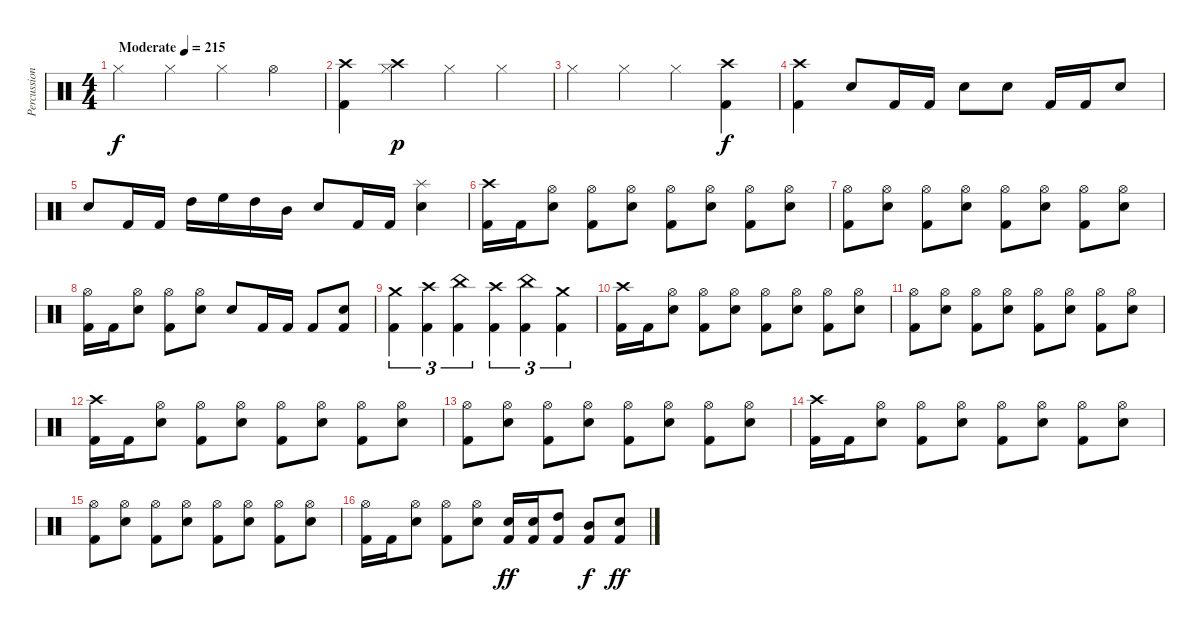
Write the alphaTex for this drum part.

\track ("Percussions" "Percussion") {instrument percussion}
\staff {score}
\articulation defaults
\ts (4 4)
\tempo (215 "Moderate")
\clef neutral
\ks c "Hi-Hat (closed)".4{dy f} "Hi-Hat (closed)".4 "Hi-Hat (closed)".4 "Hi-Hat (open)".4
|
("Crash high (hit)" "Kick (hit) 2").4 ("Crash high (hit)" "Hi-Hat (closed)").4{dy p} "Hi-Hat (closed)".4 "Hi-Hat (closed)".4 |
"Hi-Hat (closed)".4 "Hi-Hat (closed)".4 "Hi-Hat (closed)".4 ("Crash high (hit)" "Kick (hit) 2").4{dy f} |
("Crash high (hit)" "Kick (hit) 2").4 "Electric Snare (hit)".8 "Kick (hit) 2".16 "Kick (hit) 2".16 "Electric Snare (hit)".8 "Electric Snare (hit)".8 "Kick (hit) 2".16 "Kick (hit) 2".16 "Electric Snare (hit)".8 |
"Electric Snare (hit)".8 "Kick (hit) 2".16 "Kick (hit) 2".16 "High Tom (hit)".16 "High Floor Tom (hit)".16 "High Tom (hit)".16 "Mid Tom (hit)".16 "Electric Snare (hit)".8 "Kick (hit) 2".16 "Kick (hit) 2".16 ("Splash (hit)" "Electric Snare (hit)").4 |
("Crash high (hit)" "Kick (hit) 2").16 "Kick (hit) 2".16 ("Hi-Hat (open)" "Electric Snare (hit)").8 ("Hi-Hat (open)" "Kick (hit) 2").8 ("Hi-Hat (open)" "Electric Snare (hit)").8 ("Hi-Hat (open)" "Kick (hit) 2").8 ("Hi-Hat (open)" "Electric Snare (hit)").8 ("Hi-Hat (open)" "Kick (hit) 2").8 ("Hi-Hat (open)" "Electric Snare (hit)").8 |
("Hi-Hat (open)" "Kick (hit) 2").8 ("Hi-Hat (open)" "Electric Snare (hit)").8 ("Hi-Hat (open)" "Kick (hit) 2").8 ("Hi-Hat (open)" "Electric Snare (hit)").8 ("Hi-Hat (open)" "Kick (hit) 2").8 ("Hi-Hat (open)" "Electric Snare (hit)").8 ("Hi-Hat (open)" "Kick (hit) 2").8 ("Hi-Hat (open)" "Electric Snare (hit)").8 |
("Hi-Hat (open)" "Kick (hit) 2").16 "Kick (hit) 2".16 ("Hi-Hat (open)" "Electric Snare (hit)").8 ("Hi-Hat (open)" "Kick (hit) 2").8 ("Hi-Hat (open)" "Electric Snare (hit)").8 "Electric Snare (hit)".8 "Kick (hit) 2".16 "Kick (hit) 2".16 "Kick (hit) 2".8 ("Electric Snare (hit)" "Kick (hit) 2").8 |
("Crash medium (hit)" "Kick (hit) 2").4{tu (3 2)} ("Crash high (hit)" "Kick (hit) 2").4{tu (3 2)} ("China (hit)" "Kick (hit) 2").4{tu (3 2)} ("Crash high (hit)" "Kick (hit) 2").4{tu (3 2)} ("China (hit)" "Kick (hit) 2").4{tu (3 2)} ("Crash medium (hit)" "Kick (hit) 2").4{tu (3 2)} |
("Crash high (hit)" "Kick (hit) 2").16 "Kick (hit) 2".16 ("Hi-Hat (open)" "Electric Snare (hit)").8 ("Hi-Hat (open)" "Kick (hit) 2").8 ("Hi-Hat (open)" "Electric Snare (hit)").8 ("Hi-Hat (open)" "Kick (hit) 2").8 ("Hi-Hat (open)" "Electric Snare (hit)").8 ("Hi-Hat (open)" "Kick (hit) 2").8 ("Hi-Hat (open)" "Electric Snare (hit)").8 |
("Hi-Hat (open)" "Kick (hit) 2").8 ("Hi-Hat (open)" "Electric Snare (hit)").8 ("Hi-Hat (open)" "Kick (hit) 2").8 ("Hi-Hat (open)" "Electric Snare (hit)").8 ("Hi-Hat (open)" "Kick (hit) 2").8 ("Hi-Hat (open)" "Electric Snare (hit)").8 ("Hi-Hat (open)" "Kick (hit) 2").8 ("Hi-Hat (open)" "Electric Snare (hit)").8 |
("Crash high (hit)" "Kick (hit) 2").16 "Kick (hit) 2".16 ("Hi-Hat (open)" "Electric Snare (hit)").8 ("Hi-Hat (open)" "Kick (hit) 2").8 ("Hi-Hat (open)" "Electric Snare (hit)").8 ("Hi-Hat (open)" "Kick (hit) 2").8 ("Hi-Hat (open)" "Electric Snare (hit)").8 ("Hi-Hat (open)" "Kick (hit) 2").8 ("Hi-Hat (open)" "Electric Snare (hit)").8 |
("Hi-Hat (open)" "Kick (hit) 2").8 ("Hi-Hat (open)" "Electric Snare (hit)").8 ("Hi-Hat (open)" "Kick (hit) 2").8 ("Hi-Hat (open)" "Electric Snare (hit)").8 ("Hi-Hat (open)" "Kick (hit) 2").8 ("Hi-Hat (open)" "Electric Snare (hit)").8 ("Hi-Hat (open)" "Kick (hit) 2").8 ("Hi-Hat (open)" "Electric Snare (hit)").8 |
("Crash high (hit)" "Kick (hit) 2").16 "Kick (hit) 2".16 ("Hi-Hat (open)" "Electric Snare (hit)").8 ("Hi-Hat (open)" "Kick (hit) 2").8 ("Hi-Hat (open)" "Electric Snare (hit)").8 ("Hi-Hat (open)" "Kick (hit) 2").8 ("Hi-Hat (open)" "Electric Snare (hit)").8 ("Hi-Hat (open)" "Kick (hit) 2").8 ("Hi-Hat (open)" "Electric Snare (hit)").8 |
("Hi-Hat (open)" "Kick (hit) 2").8 ("Hi-Hat (open)" "Electric Snare (hit)").8 ("Hi-Hat (open)" "Kick (hit) 2").8 ("Hi-Hat (open)" "Electric Snare (hit)").8 ("Hi-Hat (open)" "Kick (hit) 2").8 ("Hi-Hat (open)" "Electric Snare (hit)").8 ("Hi-Hat (open)" "Kick (hit) 2").8 ("Hi-Hat (open)" "Electric Snare (hit)").8 |
("Hi-Hat (open)" "Kick (hit) 2").16 "Kick (hit) 2".16 ("Hi-Hat (open)" "Electric Snare (hit)").8 ("Hi-Hat (open)" "Kick (hit) 2").8 ("Hi-Hat (open)" "Electric Snare (hit)").8 ("Electric Snare (hit)" "Kick (hit) 2").16{dy ff} ("Electric Snare (hit)" "Kick (hit) 2").16 ("High Tom (hit)" "Kick (hit) 2").8 ("Mid Tom (hit)" "Kick (hit) 2").8{dy f} ("Electric Snare (hit)" "Kick (hit) 2").8{dy ff}
